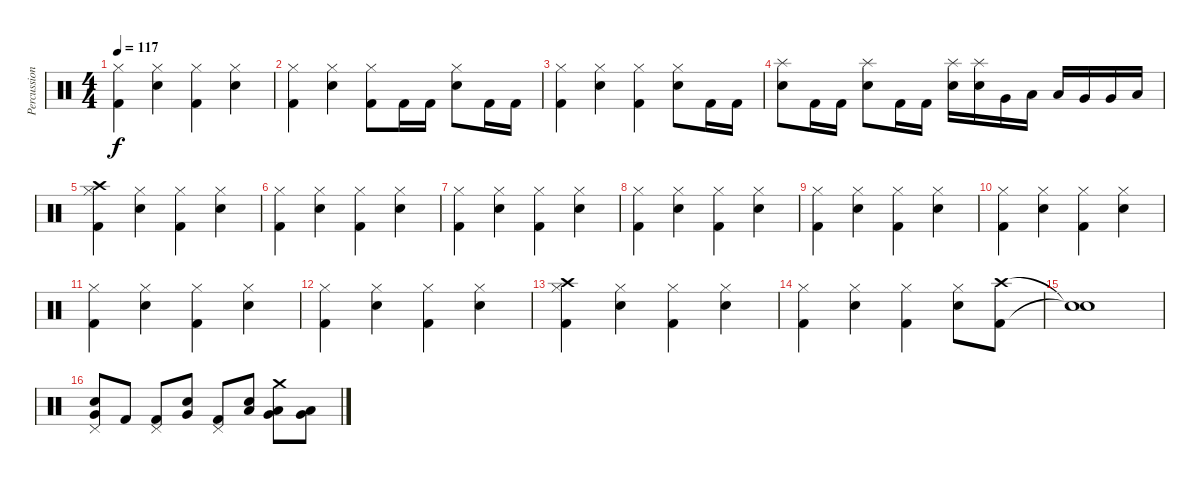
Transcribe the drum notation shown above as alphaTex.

\track ("Percussion" "Percussion") {instrument percussion}
\staff {score}
\articulation defaults
\ts (4 4)
\tempo 117
\clef neutral
\ks c
("Hi-Hat (closed)" "Kick (hit) 2").4{dy f} ("Hi-Hat (closed)" "Metronome (bell)").4 ("Hi-Hat (closed)" "Kick (hit) 2").4 ("Hi-Hat (closed)" "Metronome (bell)").4 |
("Hi-Hat (closed)" "Kick (hit) 2").4 ("Hi-Hat (closed)" "Metronome (bell)").4 ("Hi-Hat (closed)" "Kick (hit) 2").8 "Kick (hit) 2".16 "Kick (hit) 2".16 ("Hi-Hat (closed)" "Metronome (bell)").8 "Kick (hit) 2".16 "Kick (hit) 2".16 |
("Hi-Hat (closed)" "Kick (hit) 2").4 ("Hi-Hat (closed)" "Metronome (bell)").4 ("Hi-Hat (closed)" "Kick (hit) 2").4 ("Hi-Hat (closed)" "Metronome (bell)").8 "Kick (hit) 2".16 "Kick (hit) 2".16 |
("Splash (hit)" "Metronome (bell)").8 "Kick (hit) 2".16 "Kick (hit) 2".16 ("Splash (hit)" "Metronome (bell)").8 "Kick (hit) 2".16 "Kick (hit) 2".16 ("Splash (hit)" "Metronome (bell)").16 ("Splash (hit)" "Metronome (bell)").16 "Very Low Tom (hit)".16 "Low Floor Tom (hit)".16 "Low Tom (hit)".16 "Very Low Tom (hit)".16 "Very Low Tom (hit)".16 "Low Floor Tom (hit)".16 |
("Hi-Hat (closed)" "Crash high (hit)" "Kick (hit) 2").4 ("Hi-Hat (closed)" "Metronome (bell)").4 ("Hi-Hat (closed)" "Kick (hit) 2").4 ("Hi-Hat (closed)" "Metronome (bell)").4 |
("Hi-Hat (closed)" "Kick (hit) 2").4 ("Hi-Hat (closed)" "Metronome (bell)").4 ("Hi-Hat (closed)" "Kick (hit) 2").4 ("Hi-Hat (closed)" "Metronome (bell)").4 |
("Hi-Hat (closed)" "Kick (hit) 2").4 ("Hi-Hat (closed)" "Metronome (bell)").4 ("Hi-Hat (closed)" "Kick (hit) 2").4 ("Hi-Hat (closed)" "Metronome (bell)").4 |
("Hi-Hat (closed)" "Kick (hit) 2").4 ("Hi-Hat (closed)" "Metronome (bell)").4 ("Hi-Hat (closed)" "Kick (hit) 2").4 ("Hi-Hat (closed)" "Metronome (bell)").4 |
("Hi-Hat (closed)" "Kick (hit) 2").4 ("Hi-Hat (closed)" "Metronome (bell)").4 ("Hi-Hat (closed)" "Kick (hit) 2").4 ("Hi-Hat (closed)" "Metronome (bell)").4 |
("Hi-Hat (closed)" "Kick (hit) 2").4 ("Hi-Hat (closed)" "Metronome (bell)").4 ("Hi-Hat (closed)" "Kick (hit) 2").4 ("Hi-Hat (closed)" "Metronome (bell)").4 |
("Hi-Hat (closed)" "Kick (hit) 2").4 ("Hi-Hat (closed)" "Metronome (bell)").4 ("Hi-Hat (closed)" "Kick (hit) 2").4 ("Hi-Hat (closed)" "Metronome (bell)").4 |
("Hi-Hat (closed)" "Kick (hit) 2").4 ("Hi-Hat (closed)" "Metronome (bell)").4 ("Hi-Hat (closed)" "Kick (hit) 2").4 ("Hi-Hat (closed)" "Metronome (bell)").4 |
("Hi-Hat (closed)" "Crash high (hit)" "Kick (hit) 2").4 ("Hi-Hat (closed)" "Metronome (bell)").4 ("Hi-Hat (closed)" "Kick (hit) 2").4 ("Hi-Hat (closed)" "Metronome (bell)").4 |
("Hi-Hat (closed)" "Kick (hit) 2").4 ("Hi-Hat (closed)" "Metronome (bell)").4 ("Hi-Hat (closed)" "Kick (hit) 2").4 ("Hi-Hat (closed)" "Metronome (bell)").8 ("Crash high (hit)" "Kick (hit) 2").8 |
("Snare (hit)"{t} "Snare (hit)"{t}).1 |
("Pedal Hi-Hat (hit)" "Very Low Tom (hit)" "Metronome (bell)").8 "Kick (hit) 2".8 ("Pedal Hi-Hat (hit)" "Kick (hit) 2").8 ("Very Low Tom (hit)" "Metronome (bell)").8 ("Pedal Hi-Hat (hit)" "Kick (hit) 2").8 ("Low Floor Tom (hit)" "Metronome (bell)").8 ("Crash medium (hit)" "Low Tom (hit)" "Very Low Tom (hit)").8 ("Very Low Tom (hit)" "Low Floor Tom (hit)").8
